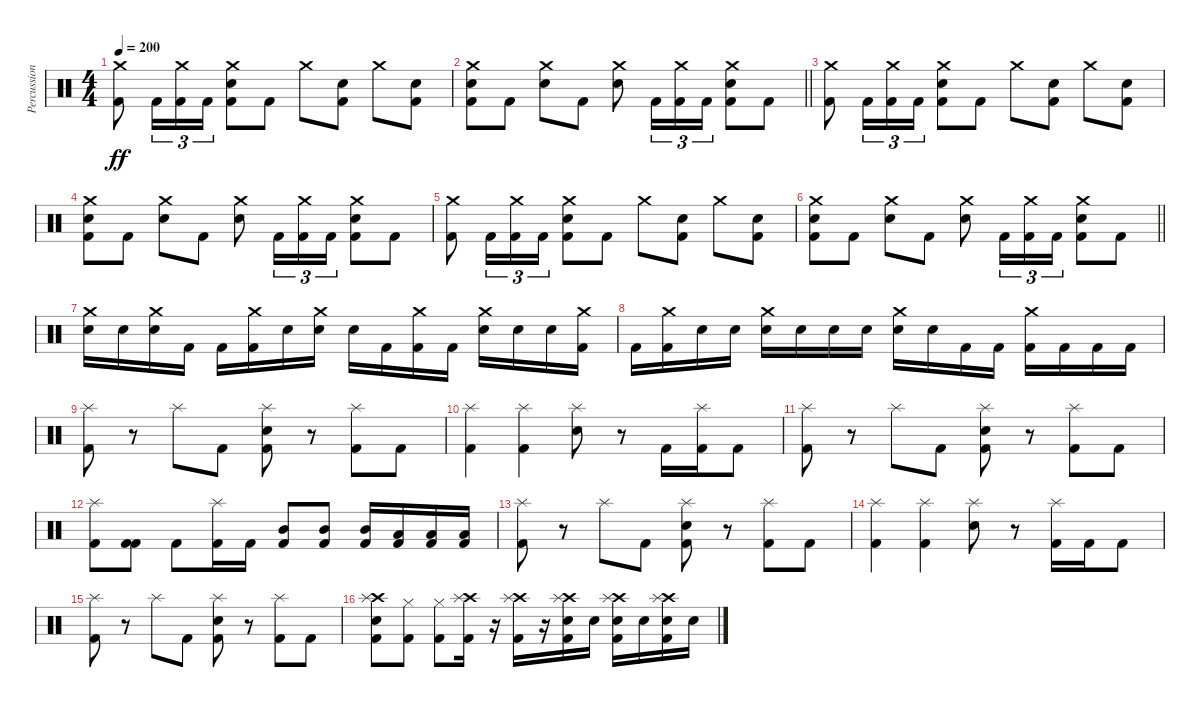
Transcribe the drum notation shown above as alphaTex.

\track ("Percussion" "Percussion") {instrument percussion}
\staff {score}
\articulation defaults
\ts (4 4)
\tempo 200
\clef neutral
\ks c
("Crash medium (hit)" "Kick (hit) 2").8{dy ff} "Kick (hit) 2".16{tu (3 2)} ("Crash medium (hit)" "Kick (hit) 2").16{tu (3 2)} "Kick (hit) 2".16{tu (3 2)} ("Crash medium (hit)" "Electric Snare (hit)" "Kick (hit) 2").8 "Kick (hit) 2".8 "Crash medium (hit)".8 ("Electric Snare (hit)" "Kick (hit) 2").8 "Crash medium (hit)".8 ("Electric Snare (hit)" "Kick (hit) 2").8 |
\barLineRight lightlight
("Crash medium (hit)" "Electric Snare (hit)" "Kick (hit) 2").8 "Kick (hit) 2".8 ("Crash medium (hit)" "Electric Snare (hit)").8 "Kick (hit) 2".8 ("Crash medium (hit)" "Electric Snare (hit)").8 "Kick (hit) 2".16{tu (3 2)} ("Crash medium (hit)" "Kick (hit) 2").16{tu (3 2)} "Kick (hit) 2".16{tu (3 2)} ("Crash medium (hit)" "Electric Snare (hit)" "Kick (hit) 2").8 "Kick (hit) 2".8 |
("Crash medium (hit)" "Kick (hit) 2").8 "Kick (hit) 2".16{tu (3 2)} ("Crash medium (hit)" "Kick (hit) 2").16{tu (3 2)} "Kick (hit) 2".16{tu (3 2)} ("Crash medium (hit)" "Electric Snare (hit)" "Kick (hit) 2").8 "Kick (hit) 2".8 "Crash medium (hit)".8 ("Electric Snare (hit)" "Kick (hit) 2").8 "Crash medium (hit)".8 ("Electric Snare (hit)" "Kick (hit) 2").8 |
("Crash medium (hit)" "Electric Snare (hit)" "Kick (hit) 2").8 "Kick (hit) 2".8 ("Crash medium (hit)" "Electric Snare (hit)").8 "Kick (hit) 2".8 ("Crash medium (hit)" "Electric Snare (hit)").8 "Kick (hit) 2".16{tu (3 2)} ("Crash medium (hit)" "Kick (hit) 2").16{tu (3 2)} "Kick (hit) 2".16{tu (3 2)} ("Crash medium (hit)" "Electric Snare (hit)" "Kick (hit) 2").8 "Kick (hit) 2".8 |
("Crash medium (hit)" "Kick (hit) 2").8 "Kick (hit) 2".16{tu (3 2)} ("Crash medium (hit)" "Kick (hit) 2").16{tu (3 2)} "Kick (hit) 2".16{tu (3 2)} ("Crash medium (hit)" "Electric Snare (hit)" "Kick (hit) 2").8 "Kick (hit) 2".8 "Crash medium (hit)".8 ("Electric Snare (hit)" "Kick (hit) 2").8 "Crash medium (hit)".8 ("Electric Snare (hit)" "Kick (hit) 2").8 |
\barLineRight lightlight
("Crash medium (hit)" "Electric Snare (hit)" "Kick (hit) 2").8 "Kick (hit) 2".8 ("Crash medium (hit)" "Electric Snare (hit)").8 "Kick (hit) 2".8 ("Crash medium (hit)" "Electric Snare (hit)").8 "Kick (hit) 2".16{tu (3 2)} ("Crash medium (hit)" "Kick (hit) 2").16{tu (3 2)} "Kick (hit) 2".16{tu (3 2)} ("Crash medium (hit)" "Electric Snare (hit)" "Kick (hit) 2").8 "Kick (hit) 2".8 |
("Crash medium (hit)" "Electric Snare (hit)").16 "Electric Snare (hit)".16 ("Crash medium (hit)" "Electric Snare (hit)").16 "Kick (hit) 2".16 "Kick (hit) 2".16 ("Crash medium (hit)" "Kick (hit) 2").16 "Electric Snare (hit)".16 ("Crash medium (hit)" "Electric Snare (hit)").16 "Electric Snare (hit)".16 "Kick (hit) 2".16 ("Crash medium (hit)" "Kick (hit) 2").16 "Kick (hit) 2".16 ("Crash medium (hit)" "Electric Snare (hit)").16 "Electric Snare (hit)".16 "Electric Snare (hit)".16 ("Crash medium (hit)" "Kick (hit) 2").16 |
"Kick (hit) 2".16 ("Crash medium (hit)" "Kick (hit) 2").16 "Electric Snare (hit)".16 "Electric Snare (hit)".16 ("Crash medium (hit)" "Electric Snare (hit)").16 "Electric Snare (hit)".16 "Electric Snare (hit)".16 "Electric Snare (hit)".16 ("Crash medium (hit)" "Electric Snare (hit)").16 "Electric Snare (hit)".16 "Kick (hit) 2".16 "Kick (hit) 2".16 ("Crash medium (hit)" "Kick (hit) 2").16 "Kick (hit) 2".16 "Kick (hit) 2".16 "Kick (hit) 2".16 |
("Splash (hit)" "Kick (hit) 2").8 r.8 "Splash (hit)".8 "Kick (hit) 2".8 ("Splash (hit)" "Electric Snare (hit)" "Kick (hit) 2").8 r.8 ("Splash (hit)" "Kick (hit) 2").8 "Kick (hit) 2".8 |
("Splash (hit)" "Kick (hit) 2").4 ("Splash (hit)" "Kick (hit) 2").4 ("Splash (hit)" "Electric Snare (hit)").8 r.8 "Kick (hit) 2".16 ("Splash (hit)" "Kick (hit) 2").16 "Kick (hit) 2".8 |
("Splash (hit)" "Kick (hit) 2").8 r.8 "Splash (hit)".8 "Kick (hit) 2".8 ("Splash (hit)" "Electric Snare (hit)" "Kick (hit) 2").8 r.8 ("Splash (hit)" "Kick (hit) 2").8 "Kick (hit) 2".8 |
("Splash (hit)" "Kick (hit) 2").8 ("Kick (hit) 2" "Kick (hit) 2").8 "Kick (hit) 2".8 ("Splash (hit)" "Kick (hit) 2").16 "Kick (hit) 2".16 ("Mid Tom (hit)" "Kick (hit) 2").8 ("Mid Tom (hit)" "Kick (hit) 2").8 ("Mid Tom (hit)" "Kick (hit) 2").16 ("Low Tom (hit)" "Kick (hit) 2").16 ("Low Tom (hit)" "Kick (hit) 2").16 ("Low Tom (hit)" "Kick (hit) 2").16 |
("Splash (hit)" "Kick (hit) 2").8 r.8 "Splash (hit)".8 "Kick (hit) 2".8 ("Splash (hit)" "Electric Snare (hit)" "Kick (hit) 2").8 r.8 ("Splash (hit)" "Kick (hit) 2").8 "Kick (hit) 2".8 |
("Splash (hit)" "Kick (hit) 2").4 ("Splash (hit)" "Kick (hit) 2").4 ("Splash (hit)" "Electric Snare (hit)").8 r.8 ("Splash (hit)" "Kick (hit) 2").16 "Kick (hit) 2".16 "Kick (hit) 2".8 |
("Splash (hit)" "Kick (hit) 2").8 r.8 "Splash (hit)".8 "Kick (hit) 2".8 ("Splash (hit)" "Electric Snare (hit)" "Kick (hit) 2").8 r.8 ("Splash (hit)" "Kick (hit) 2").8 "Kick (hit) 2".8 |
("Crash high (hit)" "Splash (hit)" "Electric Snare (hit)" "Kick (hit) 2").8 ("Hi-Hat (closed)" "Kick (hit) 2").8 ("Hi-Hat (closed)" "Kick (hit) 2").8 ("Crash high (hit)" "Splash (hit)" "Kick (hit) 2").16 r.16 ("Crash high (hit)" "Splash (hit)" "Kick (hit) 2").16 r.16 ("Crash high (hit)" "Splash (hit)" "Electric Snare (hit)" "Kick (hit) 2").16 "Electric Snare (hit)".16 ("Crash high (hit)" "Splash (hit)" "Electric Snare (hit)" "Kick (hit) 2").16 "Electric Snare (hit)".16 ("Crash high (hit)" "Splash (hit)" "Electric Snare (hit)" "Kick (hit) 2").16 "Electric Snare (hit)".16
